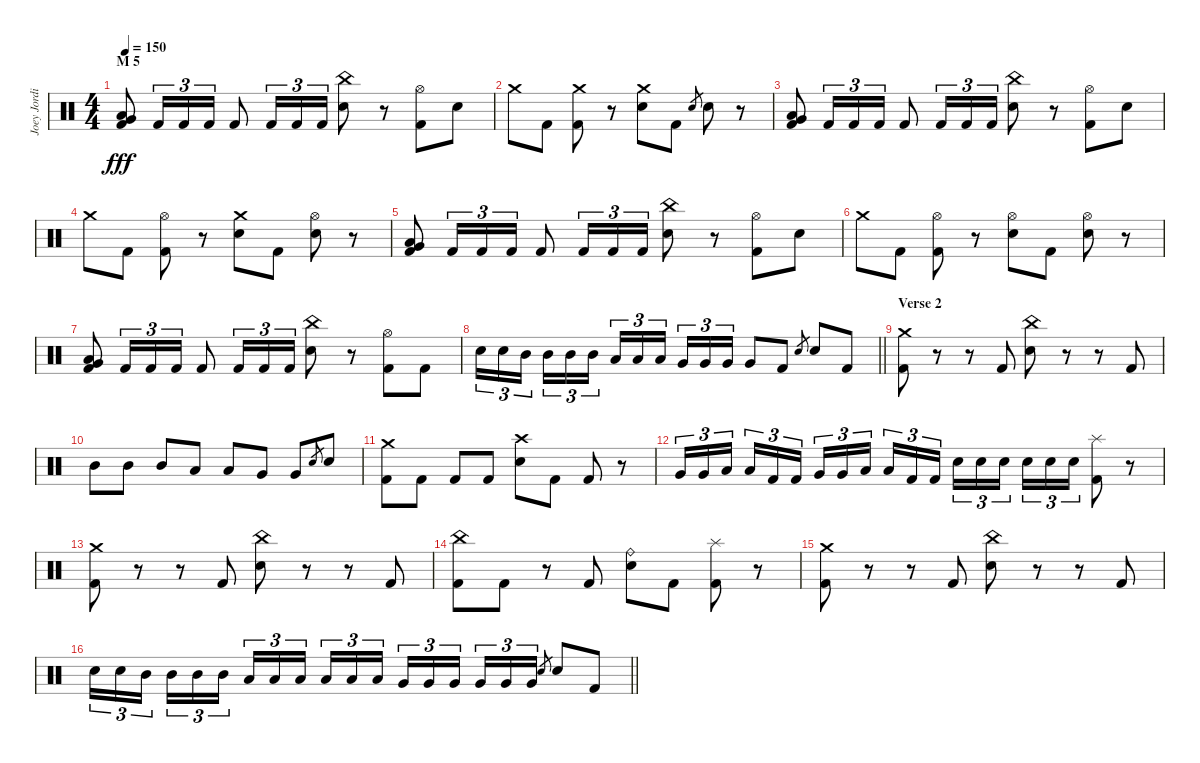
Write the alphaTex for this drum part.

\track ("Joey Jordison" "Joey Jordi") {instrument percussion}
\staff {score}
\articulation defaults
\ts (4 4)
\section ("" "M 5")
\tempo 150
\clef neutral
\ks c
("Very Low Tom (hit)" "Low Floor Tom (hit)" "Kick (hit) 2").8{dy fff} "Kick (hit) 2".16{tu (3 2)} "Kick (hit) 2".16{tu (3 2)} "Kick (hit) 2".16{tu (3 2)} "Kick (hit) 2".8 "Kick (hit) 2".16{tu (3 2)} "Kick (hit) 2".16{tu (3 2)} "Kick (hit) 2".16{tu (3 2)} ("China (hit)" "Electric Snare (hit)").8 r.8 ("Hi-Hat (open)" "Kick (hit) 2").8 "Electric Snare (hit)".8 |
"Crash medium (hit)".8 "Kick (hit) 2".8 ("Crash medium (hit)" "Kick (hit) 2").8 r.8 ("Crash medium (hit)" "Electric Snare (hit)").8 "Kick (hit) 2".8 "Electric Snare (hit)".8{gr} "Electric Snare (hit)".8 r.8 |
("Very Low Tom (hit)" "Low Floor Tom (hit)" "Kick (hit) 2").8 "Kick (hit) 2".16{tu (3 2)} "Kick (hit) 2".16{tu (3 2)} "Kick (hit) 2".16{tu (3 2)} "Kick (hit) 2".8 "Kick (hit) 2".16{tu (3 2)} "Kick (hit) 2".16{tu (3 2)} "Kick (hit) 2".16{tu (3 2)} ("China (hit)" "Electric Snare (hit)").8 r.8 ("Hi-Hat (open)" "Kick (hit) 2").8 "Electric Snare (hit)".8 |
"Crash medium (hit)".8 "Kick (hit) 2".8 ("Hi-Hat (open)" "Kick (hit) 2").8 r.8 ("Crash medium (hit)" "Electric Snare (hit)").8 "Kick (hit) 2".8 ("Hi-Hat (open)" "Electric Snare (hit)").8 r.8 |
("Very Low Tom (hit)" "Low Floor Tom (hit)" "Kick (hit) 2").8 "Kick (hit) 2".16{tu (3 2)} "Kick (hit) 2".16{tu (3 2)} "Kick (hit) 2".16{tu (3 2)} "Kick (hit) 2".8 "Kick (hit) 2".16{tu (3 2)} "Kick (hit) 2".16{tu (3 2)} "Kick (hit) 2".16{tu (3 2)} ("China (hit)" "Electric Snare (hit)").8 r.8 ("Hi-Hat (open)" "Kick (hit) 2").8 "Electric Snare (hit)".8 |
"Crash medium (hit)".8 "Kick (hit) 2".8 ("Hi-Hat (open)" "Kick (hit) 2").8 r.8 ("Hi-Hat (open)" "Electric Snare (hit)").8 "Kick (hit) 2".8 ("Hi-Hat (open)" "Electric Snare (hit)").8 r.8 |
("Very Low Tom (hit)" "Low Floor Tom (hit)" "Kick (hit) 2").8 "Kick (hit) 2".16{tu (3 2)} "Kick (hit) 2".16{tu (3 2)} "Kick (hit) 2".16{tu (3 2)} "Kick (hit) 2".8 "Kick (hit) 2".16{tu (3 2)} "Kick (hit) 2".16{tu (3 2)} "Kick (hit) 2".16{tu (3 2)} ("China (hit)" "Electric Snare (hit)").8 r.8 ("Hi-Hat (open)" "Kick (hit) 2").8 "Kick (hit) 2".8 |
\barLineRight lightlight "Snare (hit) 2".16{tu (3 2)} "Snare (hit) 2".16{tu (3 2)} "Mid Tom (hit)".16{tu (3 2) beam splitsecondary} "Mid Tom (hit)".16{tu (3 2)} "Mid Tom (hit)".16{tu (3 2)} "Mid Tom (hit)".16{tu (3 2)} "Low Tom (hit)".16{tu (3 2)} "Low Tom (hit)".16{tu (3 2)} "Low Tom (hit)".16{tu (3 2) beam splitsecondary} "Very Low Tom (hit)".16{tu (3 2)} "Very Low Tom (hit)".16{tu (3 2)} "Very Low Tom (hit)".16{tu (3 2)} "Very Low Tom (hit)".8 "Kick (hit) 2".8 "Electric Snare (hit)".8{gr} "Electric Snare (hit)".8 "Kick (hit) 2".8
|
\section ("" "Verse 2")
("Crash medium (hit)" "Kick (hit) 2").8 r.8 r.8 "Kick (hit) 2".8 ("China (hit)" "Electric Snare (hit)").8 r.8 r.8 "Kick (hit) 2".8 |
"Mid Tom (hit)".8 "Mid Tom (hit)".8 "Mid Tom (hit)".8 "Low Tom (hit)".8 "Low Tom (hit)".8 "Very Low Tom (hit)".8 "Very Low Tom (hit)".8 "Electric Snare (hit)".8{gr} "Electric Snare (hit)".8 |
("Crash medium (hit)" "Kick (hit) 2").8 "Kick (hit) 2".8 "Kick (hit) 2".8 "Kick (hit) 2".8 ("Crash high (hit)" "Electric Snare (hit)").8 "Kick (hit) 2".8 "Kick (hit) 2".8 r.8 |
"Very Low Tom (hit)".16{tu (3 2)} "Very Low Tom (hit)".16{tu (3 2)} "Low Floor Tom (hit)".16{tu (3 2) beam splitsecondary} "Low Floor Tom (hit)".16{tu (3 2)} "Kick (hit) 2".16{tu (3 2)} "Kick (hit) 2".16{tu (3 2)} "Very Low Tom (hit)".16{tu (3 2)} "Very Low Tom (hit)".16{tu (3 2)} "Low Floor Tom (hit)".16{tu (3 2) beam splitsecondary} "Low Floor Tom (hit)".16{tu (3 2)} "Kick (hit) 2".16{tu (3 2)} "Kick (hit) 2".16{tu (3 2)} "Electric Snare (hit)".16{tu (3 2)} "Electric Snare (hit)".16{tu (3 2)} "Electric Snare (hit)".16{tu (3 2) beam splitsecondary} "Electric Snare (hit)".16{tu (3 2)} "Electric Snare (hit)".16{tu (3 2)} "Electric Snare (hit)".16{tu (3 2)} ("Splash (hit)" "Kick (hit) 2").8 r.8 |
("Crash medium (hit)" "Kick (hit) 2").8 r.8 r.8 "Kick (hit) 2".8 ("China (hit)" "Electric Snare (hit)").8 r.8 r.8 "Kick (hit) 2".8 |
("China (hit)" "Kick (hit) 2").8 "Kick (hit) 2".8 r.8 "Kick (hit) 2".8 ("Ride (bell)" "Electric Snare (hit)").8 "Kick (hit) 2".8 ("Splash (hit)" "Kick (hit) 2").8 r.8 |
("Crash medium (hit)" "Kick (hit) 2").8 r.8 r.8 "Kick (hit) 2".8 ("China (hit)" "Electric Snare (hit)").8 r.8 r.8 "Kick (hit) 2".8 |
\barLineRight lightlight "Electric Snare (hit)".16{tu (3 2)} "Electric Snare (hit)".16{tu (3 2)} "Mid Tom (hit)".16{tu (3 2) beam splitsecondary} "Mid Tom (hit)".16{tu (3 2)} "Mid Tom (hit)".16{tu (3 2)} "Mid Tom (hit)".16{tu (3 2)} "Low Tom (hit)".16{tu (3 2)} "Low Tom (hit)".16{tu (3 2)} "Low Tom (hit)".16{tu (3 2) beam splitsecondary} "Low Tom (hit)".16{tu (3 2)} "Low Tom (hit)".16{tu (3 2)} "Low Tom (hit)".16{tu (3 2)} "Very Low Tom (hit)".16{tu (3 2)} "Very Low Tom (hit)".16{tu (3 2)} "Very Low Tom (hit)".16{tu (3 2) beam splitsecondary} "Very Low Tom (hit)".16{tu (3 2)} "Very Low Tom (hit)".16{tu (3 2)} "Very Low Tom (hit)".16{tu (3 2)} "Electric Snare (hit)".8{gr} "Electric Snare (hit)".8 "Kick (hit) 2".8
